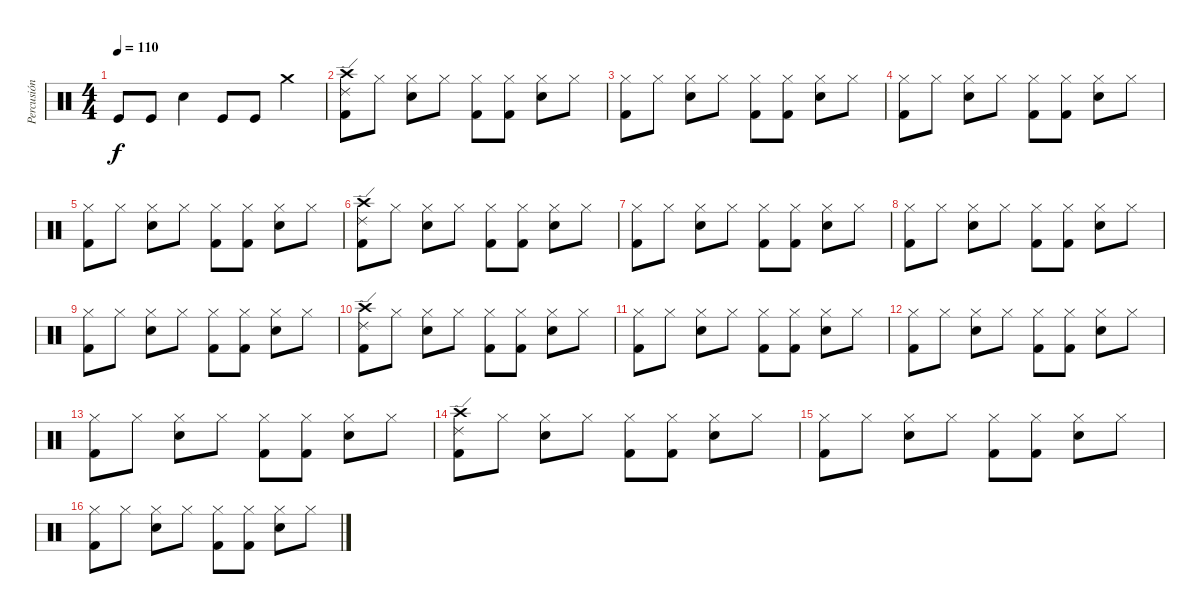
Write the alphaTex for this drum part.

\track ("Percusión" "Percusión") {instrument percussion}
\staff {score}
\articulation defaults
\ts (4 4)
\tempo 110
\clef neutral
\ks c "Kick (hit)".8{dy f} "Kick (hit)".8 "Snare (hit) 2".4 "Kick (hit)".8 "Kick (hit)".8 "Crash medium (hit)".4
|
("Ride (edge) 2" "Kick (hit) 2" "Crash high (hit)").8 "Hi-Hat (closed)".8 ("Snare (hit) 2" "Hi-Hat (closed)").8 "Hi-Hat (closed)".8 ("Kick (hit) 2" "Hi-Hat (closed)").8 ("Kick (hit) 2" "Hi-Hat (closed)").8 ("Snare (hit) 2" "Hi-Hat (closed)").8 "Hi-Hat (closed)".8 |
("Kick (hit) 2" "Hi-Hat (closed)").8 "Hi-Hat (closed)".8 ("Snare (hit) 2" "Hi-Hat (closed)").8 "Hi-Hat (closed)".8 ("Kick (hit) 2" "Hi-Hat (closed)").8 ("Kick (hit) 2" "Hi-Hat (closed)").8 ("Snare (hit) 2" "Hi-Hat (closed)").8 "Hi-Hat (closed)".8 |
("Kick (hit) 2" "Hi-Hat (closed)").8 "Hi-Hat (closed)".8 ("Snare (hit) 2" "Hi-Hat (closed)").8 "Hi-Hat (closed)".8 ("Kick (hit) 2" "Hi-Hat (closed)").8 ("Kick (hit) 2" "Hi-Hat (closed)").8 ("Snare (hit) 2" "Hi-Hat (closed)").8 "Hi-Hat (closed)".8 |
("Kick (hit) 2" "Hi-Hat (closed)").8 "Hi-Hat (closed)".8 ("Snare (hit) 2" "Hi-Hat (closed)").8 "Hi-Hat (closed)".8 ("Kick (hit) 2" "Hi-Hat (closed)").8 ("Kick (hit) 2" "Hi-Hat (closed)").8 ("Snare (hit) 2" "Hi-Hat (closed)").8 "Hi-Hat (closed)".8 |
("Ride (edge) 2" "Kick (hit) 2" "Crash high (hit)").8 "Hi-Hat (closed)".8 ("Snare (hit) 2" "Hi-Hat (closed)").8 "Hi-Hat (closed)".8 ("Kick (hit) 2" "Hi-Hat (closed)").8 ("Kick (hit) 2" "Hi-Hat (closed)").8 ("Snare (hit) 2" "Hi-Hat (closed)").8 "Hi-Hat (closed)".8 |
("Kick (hit) 2" "Hi-Hat (closed)").8 "Hi-Hat (closed)".8 ("Snare (hit) 2" "Hi-Hat (closed)").8 "Hi-Hat (closed)".8 ("Kick (hit) 2" "Hi-Hat (closed)").8 ("Kick (hit) 2" "Hi-Hat (closed)").8 ("Snare (hit) 2" "Hi-Hat (closed)").8 "Hi-Hat (closed)".8 |
("Kick (hit) 2" "Hi-Hat (closed)").8 "Hi-Hat (closed)".8 ("Snare (hit) 2" "Hi-Hat (closed)").8 "Hi-Hat (closed)".8 ("Kick (hit) 2" "Hi-Hat (closed)").8 ("Kick (hit) 2" "Hi-Hat (closed)").8 ("Snare (hit) 2" "Hi-Hat (closed)").8 "Hi-Hat (closed)".8 |
("Kick (hit) 2" "Hi-Hat (closed)").8 "Hi-Hat (closed)".8 ("Snare (hit) 2" "Hi-Hat (closed)").8 "Hi-Hat (closed)".8 ("Kick (hit) 2" "Hi-Hat (closed)").8 ("Kick (hit) 2" "Hi-Hat (closed)").8 ("Snare (hit) 2" "Hi-Hat (closed)").8 "Hi-Hat (closed)".8 |
("Ride (edge) 2" "Kick (hit) 2" "Crash high (hit)").8 "Hi-Hat (closed)".8 ("Snare (hit) 2" "Hi-Hat (closed)").8 "Hi-Hat (closed)".8 ("Kick (hit) 2" "Hi-Hat (closed)").8 ("Kick (hit) 2" "Hi-Hat (closed)").8 ("Snare (hit) 2" "Hi-Hat (closed)").8 "Hi-Hat (closed)".8 |
("Kick (hit) 2" "Hi-Hat (closed)").8 "Hi-Hat (closed)".8 ("Snare (hit) 2" "Hi-Hat (closed)").8 "Hi-Hat (closed)".8 ("Kick (hit) 2" "Hi-Hat (closed)").8 ("Kick (hit) 2" "Hi-Hat (closed)").8 ("Snare (hit) 2" "Hi-Hat (closed)").8 "Hi-Hat (closed)".8 |
("Kick (hit) 2" "Hi-Hat (closed)").8 "Hi-Hat (closed)".8 ("Snare (hit) 2" "Hi-Hat (closed)").8 "Hi-Hat (closed)".8 ("Kick (hit) 2" "Hi-Hat (closed)").8 ("Kick (hit) 2" "Hi-Hat (closed)").8 ("Snare (hit) 2" "Hi-Hat (closed)").8 "Hi-Hat (closed)".8 |
("Kick (hit) 2" "Hi-Hat (closed)").8 "Hi-Hat (closed)".8 ("Snare (hit) 2" "Hi-Hat (closed)").8 "Hi-Hat (closed)".8 ("Kick (hit) 2" "Hi-Hat (closed)").8 ("Kick (hit) 2" "Hi-Hat (closed)").8 ("Snare (hit) 2" "Hi-Hat (closed)").8 "Hi-Hat (closed)".8 |
("Ride (edge) 2" "Kick (hit) 2" "Crash high (hit)").8 "Hi-Hat (closed)".8 ("Snare (hit) 2" "Hi-Hat (closed)").8 "Hi-Hat (closed)".8 ("Kick (hit) 2" "Hi-Hat (closed)").8 ("Kick (hit) 2" "Hi-Hat (closed)").8 ("Snare (hit) 2" "Hi-Hat (closed)").8 "Hi-Hat (closed)".8 |
("Kick (hit) 2" "Hi-Hat (closed)").8 "Hi-Hat (closed)".8 ("Snare (hit) 2" "Hi-Hat (closed)").8 "Hi-Hat (closed)".8 ("Kick (hit) 2" "Hi-Hat (closed)").8 ("Kick (hit) 2" "Hi-Hat (closed)").8 ("Snare (hit) 2" "Hi-Hat (closed)").8 "Hi-Hat (closed)".8 |
("Kick (hit) 2" "Hi-Hat (closed)").8 "Hi-Hat (closed)".8 ("Snare (hit) 2" "Hi-Hat (closed)").8 "Hi-Hat (closed)".8 ("Kick (hit) 2" "Hi-Hat (closed)").8 ("Kick (hit) 2" "Hi-Hat (closed)").8 ("Snare (hit) 2" "Hi-Hat (closed)").8 "Hi-Hat (closed)".8
